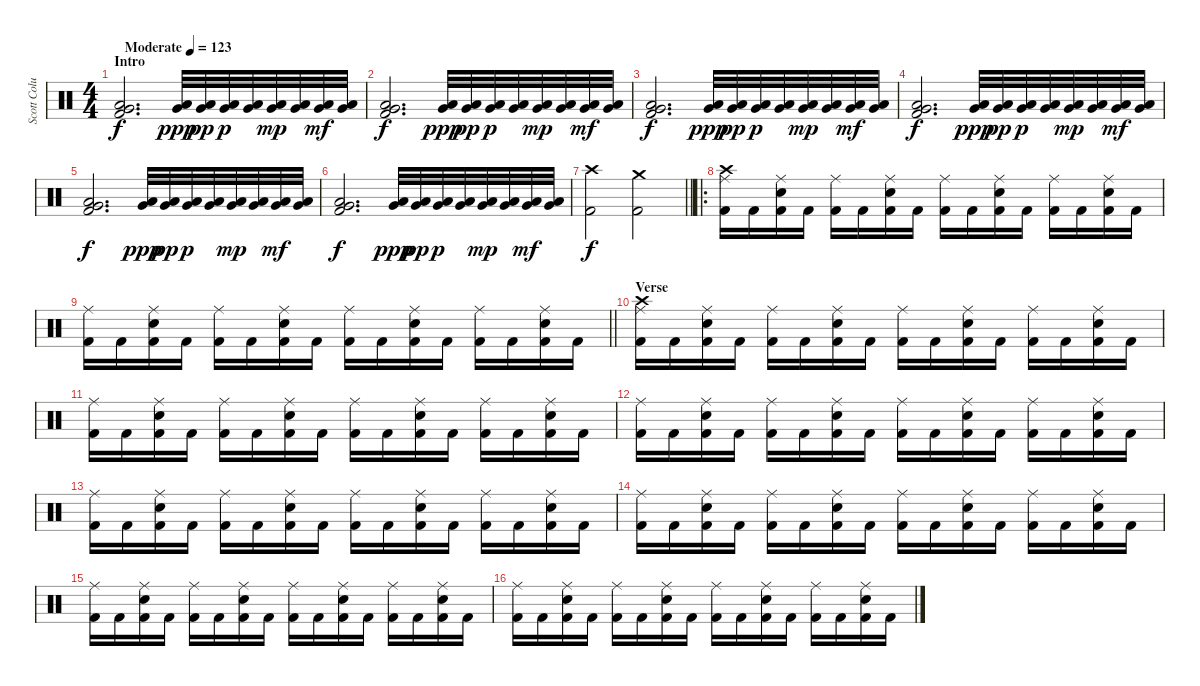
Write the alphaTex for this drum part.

\track ("Scott Columbus" "Scott Colu") {instrument percussion}
\staff {score}
\articulation defaults
\ts (4 4)
\section ("" "Intro")
\tempo (123 "Moderate")
\clef neutral
\ks c
("Kick (hit) 2" "Low Tom (hit)" "Very Low Tom (hit)").2{d dy f} ("Low Tom (hit)" "Very Low Tom (hit)").32{dy ppp} ("Low Tom (hit)" "Very Low Tom (hit)").32{dy pp} ("Low Tom (hit)" "Very Low Tom (hit)").32{dy p} ("Low Tom (hit)" "Very Low Tom (hit)").32 ("Low Tom (hit)" "Very Low Tom (hit)").32{dy mp} ("Low Tom (hit)" "Very Low Tom (hit)").32 ("Low Tom (hit)" "Very Low Tom (hit)").32{dy mf} ("Low Tom (hit)" "Very Low Tom (hit)").32 |
("Kick (hit) 2" "Low Tom (hit)" "Very Low Tom (hit)").2{d dy f} ("Low Tom (hit)" "Very Low Tom (hit)").32{dy ppp} ("Low Tom (hit)" "Very Low Tom (hit)").32{dy pp} ("Low Tom (hit)" "Very Low Tom (hit)").32{dy p} ("Low Tom (hit)" "Very Low Tom (hit)").32 ("Low Tom (hit)" "Very Low Tom (hit)").32{dy mp} ("Low Tom (hit)" "Very Low Tom (hit)").32 ("Low Tom (hit)" "Very Low Tom (hit)").32{dy mf} ("Low Tom (hit)" "Very Low Tom (hit)").32 |
("Kick (hit) 2" "Low Tom (hit)" "Very Low Tom (hit)").2{d dy f} ("Low Tom (hit)" "Very Low Tom (hit)").32{dy ppp} ("Low Tom (hit)" "Very Low Tom (hit)").32{dy pp} ("Low Tom (hit)" "Very Low Tom (hit)").32{dy p} ("Low Tom (hit)" "Very Low Tom (hit)").32 ("Low Tom (hit)" "Very Low Tom (hit)").32{dy mp} ("Low Tom (hit)" "Very Low Tom (hit)").32 ("Low Tom (hit)" "Very Low Tom (hit)").32{dy mf} ("Low Tom (hit)" "Very Low Tom (hit)").32 |
("Kick (hit) 2" "Low Tom (hit)" "Very Low Tom (hit)").2{d dy f} ("Low Tom (hit)" "Very Low Tom (hit)").32{dy ppp} ("Low Tom (hit)" "Very Low Tom (hit)").32{dy pp} ("Low Tom (hit)" "Very Low Tom (hit)").32{dy p} ("Low Tom (hit)" "Very Low Tom (hit)").32 ("Low Tom (hit)" "Very Low Tom (hit)").32{dy mp} ("Low Tom (hit)" "Very Low Tom (hit)").32 ("Low Tom (hit)" "Very Low Tom (hit)").32{dy mf} ("Low Tom (hit)" "Very Low Tom (hit)").32 |
("Kick (hit) 2" "Low Tom (hit)" "Very Low Tom (hit)").2{d dy f} ("Low Tom (hit)" "Very Low Tom (hit)").32{dy ppp} ("Low Tom (hit)" "Very Low Tom (hit)").32{dy pp} ("Low Tom (hit)" "Very Low Tom (hit)").32{dy p} ("Low Tom (hit)" "Very Low Tom (hit)").32 ("Low Tom (hit)" "Very Low Tom (hit)").32{dy mp} ("Low Tom (hit)" "Very Low Tom (hit)").32 ("Low Tom (hit)" "Very Low Tom (hit)").32{dy mf} ("Low Tom (hit)" "Very Low Tom (hit)").32 |
("Kick (hit) 2" "Low Tom (hit)" "Very Low Tom (hit)").2{d dy f} ("Low Tom (hit)" "Very Low Tom (hit)").32{dy ppp} ("Low Tom (hit)" "Very Low Tom (hit)").32{dy pp} ("Low Tom (hit)" "Very Low Tom (hit)").32{dy p} ("Low Tom (hit)" "Very Low Tom (hit)").32 ("Low Tom (hit)" "Very Low Tom (hit)").32{dy mp} ("Low Tom (hit)" "Very Low Tom (hit)").32 ("Low Tom (hit)" "Very Low Tom (hit)").32{dy mf} ("Low Tom (hit)" "Very Low Tom (hit)").32 |
\barLineRight lightlight
("Kick (hit) 2" "Crash high (hit)").2{dy f} ("Kick (hit) 2" "Crash medium (hit)").2 |
\ro
\section ("" "")
("Kick (hit) 2" "Ride (middle)" "Crash high (hit)").16 "Kick (hit) 2".16 ("Kick (hit) 2" "Electric Snare (hit)" "Ride (middle)").16 "Kick (hit) 2".16 ("Kick (hit) 2" "Ride (middle)").16 "Kick (hit) 2".16 ("Kick (hit) 2" "Electric Snare (hit)" "Ride (middle)").16 "Kick (hit) 2".16 ("Kick (hit) 2" "Ride (middle)").16 "Kick (hit) 2".16 ("Kick (hit) 2" "Electric Snare (hit)" "Ride (middle)").16 "Kick (hit) 2".16 ("Kick (hit) 2" "Ride (middle)").16 "Kick (hit) 2".16 ("Kick (hit) 2" "Electric Snare (hit)" "Ride (middle)").16 "Kick (hit) 2".16 |
\barLineRight lightlight
("Kick (hit) 2" "Ride (middle)").16 "Kick (hit) 2".16 ("Kick (hit) 2" "Electric Snare (hit)" "Ride (middle)").16 "Kick (hit) 2".16 ("Kick (hit) 2" "Ride (middle)").16 "Kick (hit) 2".16 ("Kick (hit) 2" "Electric Snare (hit)" "Ride (middle)").16 "Kick (hit) 2".16 ("Kick (hit) 2" "Ride (middle)").16 "Kick (hit) 2".16 ("Kick (hit) 2" "Electric Snare (hit)" "Ride (middle)").16 "Kick (hit) 2".16 ("Kick (hit) 2" "Ride (middle)").16 "Kick (hit) 2".16 ("Kick (hit) 2" "Electric Snare (hit)" "Ride (middle)").16 "Kick (hit) 2".16 |
\section ("" "Verse")
("Kick (hit) 2" "Ride (middle)" "Crash high (hit)").16 "Kick (hit) 2".16 ("Kick (hit) 2" "Electric Snare (hit)" "Ride (middle)").16 "Kick (hit) 2".16 ("Kick (hit) 2" "Ride (middle)").16 "Kick (hit) 2".16 ("Kick (hit) 2" "Electric Snare (hit)" "Ride (middle)").16 "Kick (hit) 2".16 ("Kick (hit) 2" "Ride (middle)").16 "Kick (hit) 2".16 ("Kick (hit) 2" "Electric Snare (hit)" "Ride (middle)").16 "Kick (hit) 2".16 ("Kick (hit) 2" "Ride (middle)").16 "Kick (hit) 2".16 ("Kick (hit) 2" "Electric Snare (hit)" "Ride (middle)").16 "Kick (hit) 2".16 |
("Kick (hit) 2" "Ride (middle)").16 "Kick (hit) 2".16 ("Kick (hit) 2" "Electric Snare (hit)" "Ride (middle)").16 "Kick (hit) 2".16 ("Kick (hit) 2" "Ride (middle)").16 "Kick (hit) 2".16 ("Kick (hit) 2" "Electric Snare (hit)" "Ride (middle)").16 "Kick (hit) 2".16 ("Kick (hit) 2" "Ride (middle)").16 "Kick (hit) 2".16 ("Kick (hit) 2" "Electric Snare (hit)" "Ride (middle)").16 "Kick (hit) 2".16 ("Kick (hit) 2" "Ride (middle)").16 "Kick (hit) 2".16 ("Kick (hit) 2" "Electric Snare (hit)" "Ride (middle)").16 "Kick (hit) 2".16 |
("Kick (hit) 2" "Ride (middle)").16 "Kick (hit) 2".16 ("Kick (hit) 2" "Electric Snare (hit)" "Ride (middle)").16 "Kick (hit) 2".16 ("Kick (hit) 2" "Ride (middle)").16 "Kick (hit) 2".16 ("Kick (hit) 2" "Electric Snare (hit)" "Ride (middle)").16 "Kick (hit) 2".16 ("Kick (hit) 2" "Ride (middle)").16 "Kick (hit) 2".16 ("Kick (hit) 2" "Electric Snare (hit)" "Ride (middle)").16 "Kick (hit) 2".16 ("Kick (hit) 2" "Ride (middle)").16 "Kick (hit) 2".16 ("Kick (hit) 2" "Electric Snare (hit)" "Ride (middle)").16 "Kick (hit) 2".16 |
("Kick (hit) 2" "Ride (middle)").16 "Kick (hit) 2".16 ("Kick (hit) 2" "Electric Snare (hit)" "Ride (middle)").16 "Kick (hit) 2".16 ("Kick (hit) 2" "Ride (middle)").16 "Kick (hit) 2".16 ("Kick (hit) 2" "Electric Snare (hit)" "Ride (middle)").16 "Kick (hit) 2".16 ("Kick (hit) 2" "Ride (middle)").16 "Kick (hit) 2".16 ("Kick (hit) 2" "Electric Snare (hit)" "Ride (middle)").16 "Kick (hit) 2".16 ("Kick (hit) 2" "Ride (middle)").16 "Kick (hit) 2".16 ("Kick (hit) 2" "Electric Snare (hit)" "Ride (middle)").16 "Kick (hit) 2".16 |
("Kick (hit) 2" "Ride (middle)").16 "Kick (hit) 2".16 ("Kick (hit) 2" "Electric Snare (hit)" "Ride (middle)").16 "Kick (hit) 2".16 ("Kick (hit) 2" "Ride (middle)").16 "Kick (hit) 2".16 ("Kick (hit) 2" "Electric Snare (hit)" "Ride (middle)").16 "Kick (hit) 2".16 ("Kick (hit) 2" "Ride (middle)").16 "Kick (hit) 2".16 ("Kick (hit) 2" "Electric Snare (hit)" "Ride (middle)").16 "Kick (hit) 2".16 ("Kick (hit) 2" "Ride (middle)").16 "Kick (hit) 2".16 ("Kick (hit) 2" "Electric Snare (hit)" "Ride (middle)").16 "Kick (hit) 2".16 |
("Kick (hit) 2" "Ride (middle)").16 "Kick (hit) 2".16 ("Kick (hit) 2" "Electric Snare (hit)" "Ride (middle)").16 "Kick (hit) 2".16 ("Kick (hit) 2" "Ride (middle)").16 "Kick (hit) 2".16 ("Kick (hit) 2" "Electric Snare (hit)" "Ride (middle)").16 "Kick (hit) 2".16 ("Kick (hit) 2" "Ride (middle)").16 "Kick (hit) 2".16 ("Kick (hit) 2" "Electric Snare (hit)" "Ride (middle)").16 "Kick (hit) 2".16 ("Kick (hit) 2" "Ride (middle)").16 "Kick (hit) 2".16 ("Kick (hit) 2" "Electric Snare (hit)" "Ride (middle)").16 "Kick (hit) 2".16 |
("Kick (hit) 2" "Ride (middle)").16 "Kick (hit) 2".16 ("Kick (hit) 2" "Electric Snare (hit)" "Ride (middle)").16 "Kick (hit) 2".16 ("Kick (hit) 2" "Ride (middle)").16 "Kick (hit) 2".16 ("Kick (hit) 2" "Electric Snare (hit)" "Ride (middle)").16 "Kick (hit) 2".16 ("Kick (hit) 2" "Ride (middle)").16 "Kick (hit) 2".16 ("Kick (hit) 2" "Electric Snare (hit)" "Ride (middle)").16 "Kick (hit) 2".16 ("Kick (hit) 2" "Ride (middle)").16 "Kick (hit) 2".16 ("Kick (hit) 2" "Electric Snare (hit)" "Ride (middle)").16 "Kick (hit) 2".16
